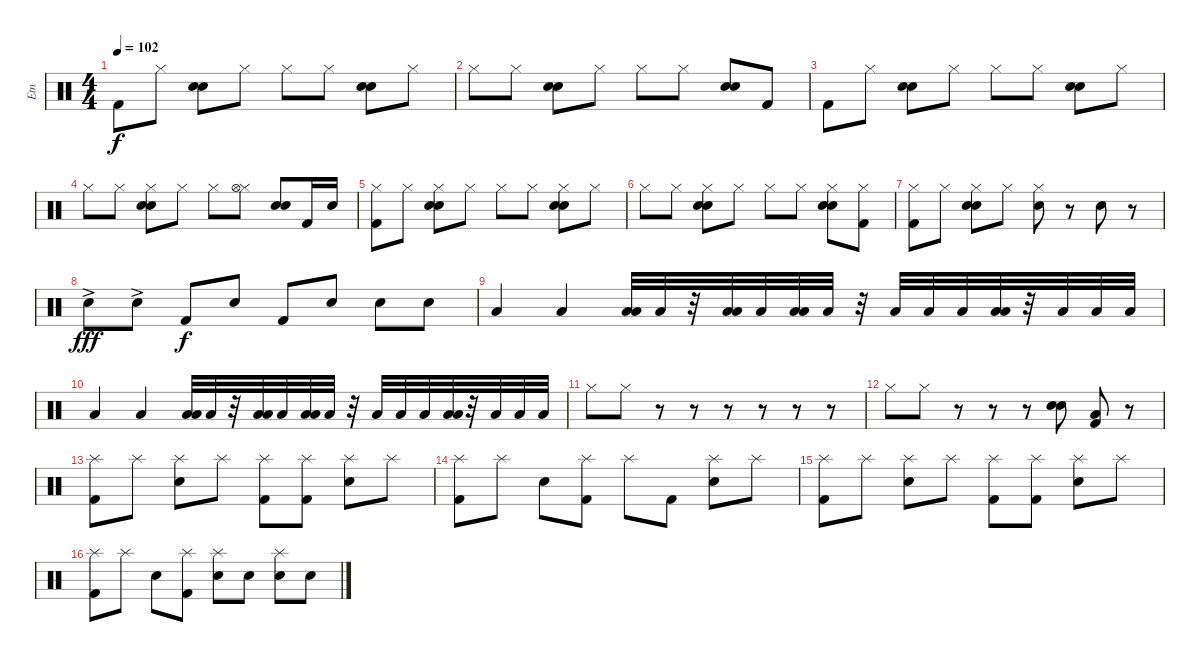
\track ("Etn" "Etn") {instrument percussion}
\staff {score}
\articulation defaults
\ts (4 4)
\tempo 102
\clef neutral
\ks c "Kick (hit) 2".8{dy f} "Hi-Hat (closed)"{x}.8
("Snare (hit) 2" "Snare (hit) 2").8 "Hi-Hat (closed)"{x}.8 "Hi-Hat (closed)"{x}.8 "Hi-Hat (closed)"{x}.8 ("Snare (hit) 2" "Snare (hit) 2").8 "Hi-Hat (closed)"{x}.8 |
"Hi-Hat (closed)"{x}.8 "Hi-Hat (closed)"{x}.8 ("Snare (hit) 2" "Snare (hit) 2").8 "Hi-Hat (closed)"{x}.8 "Hi-Hat (closed)"{x}.8 "Hi-Hat (closed)"{x}.8 ("Snare (hit) 2" "Snare (hit) 2").8 "Kick (hit) 2".8 |
"Kick (hit) 2".8 "Hi-Hat (closed)"{x}.8 ("Snare (hit) 2" "Snare (hit) 2").8 "Hi-Hat (closed)"{x}.8 "Hi-Hat (closed)"{x}.8 "Hi-Hat (closed)"{x}.8 ("Snare (hit) 2" "Snare (hit) 2").8 "Hi-Hat (closed)"{x}.8 |
"Hi-Hat (closed)"{x}.8 "Hi-Hat (closed)"{x}.8 ("Hi-Hat (closed)"{x} "Snare (hit) 2" "Snare (hit) 2").8 "Hi-Hat (closed)"{x}.8 "Hi-Hat (closed)"{x}.8 ("Hi-Hat (closed)"{x} "Hi-Hat (open)").8 ("Snare (hit) 2" "Snare (hit) 2").8 "Kick (hit) 2".16 "Snare (hit) 2".16 |
("Hi-Hat (closed)"{x} "Kick (hit) 2").8 "Hi-Hat (closed)"{x}.8 ("Hi-Hat (closed)"{x} "Snare (hit) 2" "Snare (hit) 2").8 "Hi-Hat (closed)"{x}.8 "Hi-Hat (closed)"{x}.8 "Hi-Hat (closed)"{x}.8 ("Hi-Hat (closed)"{x} "Snare (hit) 2" "Snare (hit) 2").8 "Hi-Hat (closed)"{x}.8 |
"Hi-Hat (closed)"{x}.8 "Hi-Hat (closed)"{x}.8 ("Hi-Hat (closed)"{x} "Snare (hit) 2" "Snare (hit) 2").8 "Hi-Hat (closed)"{x}.8 "Hi-Hat (closed)"{x}.8 "Hi-Hat (closed)"{x}.8 ("Hi-Hat (closed)"{x} "Snare (hit) 2" "Snare (hit) 2").8 ("Hi-Hat (closed)"{x} "Kick (hit) 2").8 |
("Hi-Hat (closed)"{x} "Kick (hit) 2").8 "Hi-Hat (closed)"{x}.8 ("Hi-Hat (closed)"{x} "Snare (hit) 2" "Snare (hit) 2").8 "Hi-Hat (closed)".8 ("Hi-Hat (closed)"{x} "Snare (hit) 2").8 r.8 "Snare (hit) 2".8 r.8 |
"Snare (hit) 2"{ac}.8{dy fff} "Snare (hit) 2"{ac}.8 "Kick (hit) 2".8{dy f} "Snare (hit) 2".8 "Kick (hit) 2".8 "Snare (hit) 2".8 "Snare (hit) 2".8 "Snare (hit) 2".8 |
"Low Tom (hit)".4 "Low Tom (hit)".4 ("Low Floor Tom (hit)" "Low Floor Tom (hit)").32 "Low Floor Tom (hit)".32 r.32 ("Low Floor Tom (hit)" "Low Floor Tom (hit)").32 "Low Floor Tom (hit)".32 ("Low Floor Tom (hit)" "Low Floor Tom (hit)").32 "Low Floor Tom (hit)".32 r.32 "Low Floor Tom (hit)".32 "Low Floor Tom (hit)".32 "Low Floor Tom (hit)".32 ("Low Floor Tom (hit)" "Low Floor Tom (hit)").32 r.32 "Low Floor Tom (hit)".32 "Low Floor Tom (hit)".32 "Low Floor Tom (hit)".32 |
"Low Tom (hit)".4 "Low Tom (hit)".4 ("Low Floor Tom (hit)" "Low Floor Tom (hit)").32 "Low Floor Tom (hit)".32 r.32 ("Low Floor Tom (hit)" "Low Floor Tom (hit)").32 "Low Floor Tom (hit)".32 ("Low Floor Tom (hit)" "Low Floor Tom (hit)").32 "Low Floor Tom (hit)".32 r.32 "Low Floor Tom (hit)".32 "Low Floor Tom (hit)".32 "Low Floor Tom (hit)".32 ("Low Floor Tom (hit)" "Low Floor Tom (hit)").32 r.32 "Low Floor Tom (hit)".32 "Low Floor Tom (hit)".32 "Low Floor Tom (hit)".32 |
"Hi-Hat (closed)".8 "Hi-Hat (closed)".8 r.8 r.8 r.8 r.8 r.8 r.8 |
"Hi-Hat (closed)".8 "Hi-Hat (closed)".8 r.8 r.8 r.8 ("Snare (hit) 2" "Snare (hit) 2").8 ("Low Tom (hit)" "Kick (hit) 2").8 r.8 |
("Splash (hit)" "Kick (hit) 2").8 "Splash (hit)".8 ("Splash (hit)" "Snare (hit) 2").8 "Splash (hit)".8 ("Splash (hit)" "Kick (hit) 2").8 ("Splash (hit)" "Kick (hit) 2").8 ("Splash (hit)" "Snare (hit) 2").8 "Splash (hit)".8 |
("Splash (hit)" "Kick (hit) 2").8 "Splash (hit)".8 "Snare (hit) 2".8 ("Splash (hit)" "Kick (hit) 2").8 "Splash (hit)".8 "Kick (hit) 2".8 ("Splash (hit)" "Snare (hit) 2").8 "Splash (hit)".8 |
("Splash (hit)" "Kick (hit) 2").8 "Splash (hit)".8 ("Splash (hit)" "Snare (hit) 2").8 "Splash (hit)".8 ("Splash (hit)" "Kick (hit) 2").8 ("Splash (hit)" "Kick (hit) 2").8 ("Splash (hit)" "Snare (hit) 2").8 "Splash (hit)".8 |
("Splash (hit)" "Kick (hit) 2").8 "Splash (hit)".8 "Snare (hit) 2".8 ("Splash (hit)" "Kick (hit) 2").8 ("Splash (hit)" "Snare (hit) 2").8 "Snare (hit) 2".8 ("Splash (hit)" "Snare (hit) 2").8 "Snare (hit) 2".8
